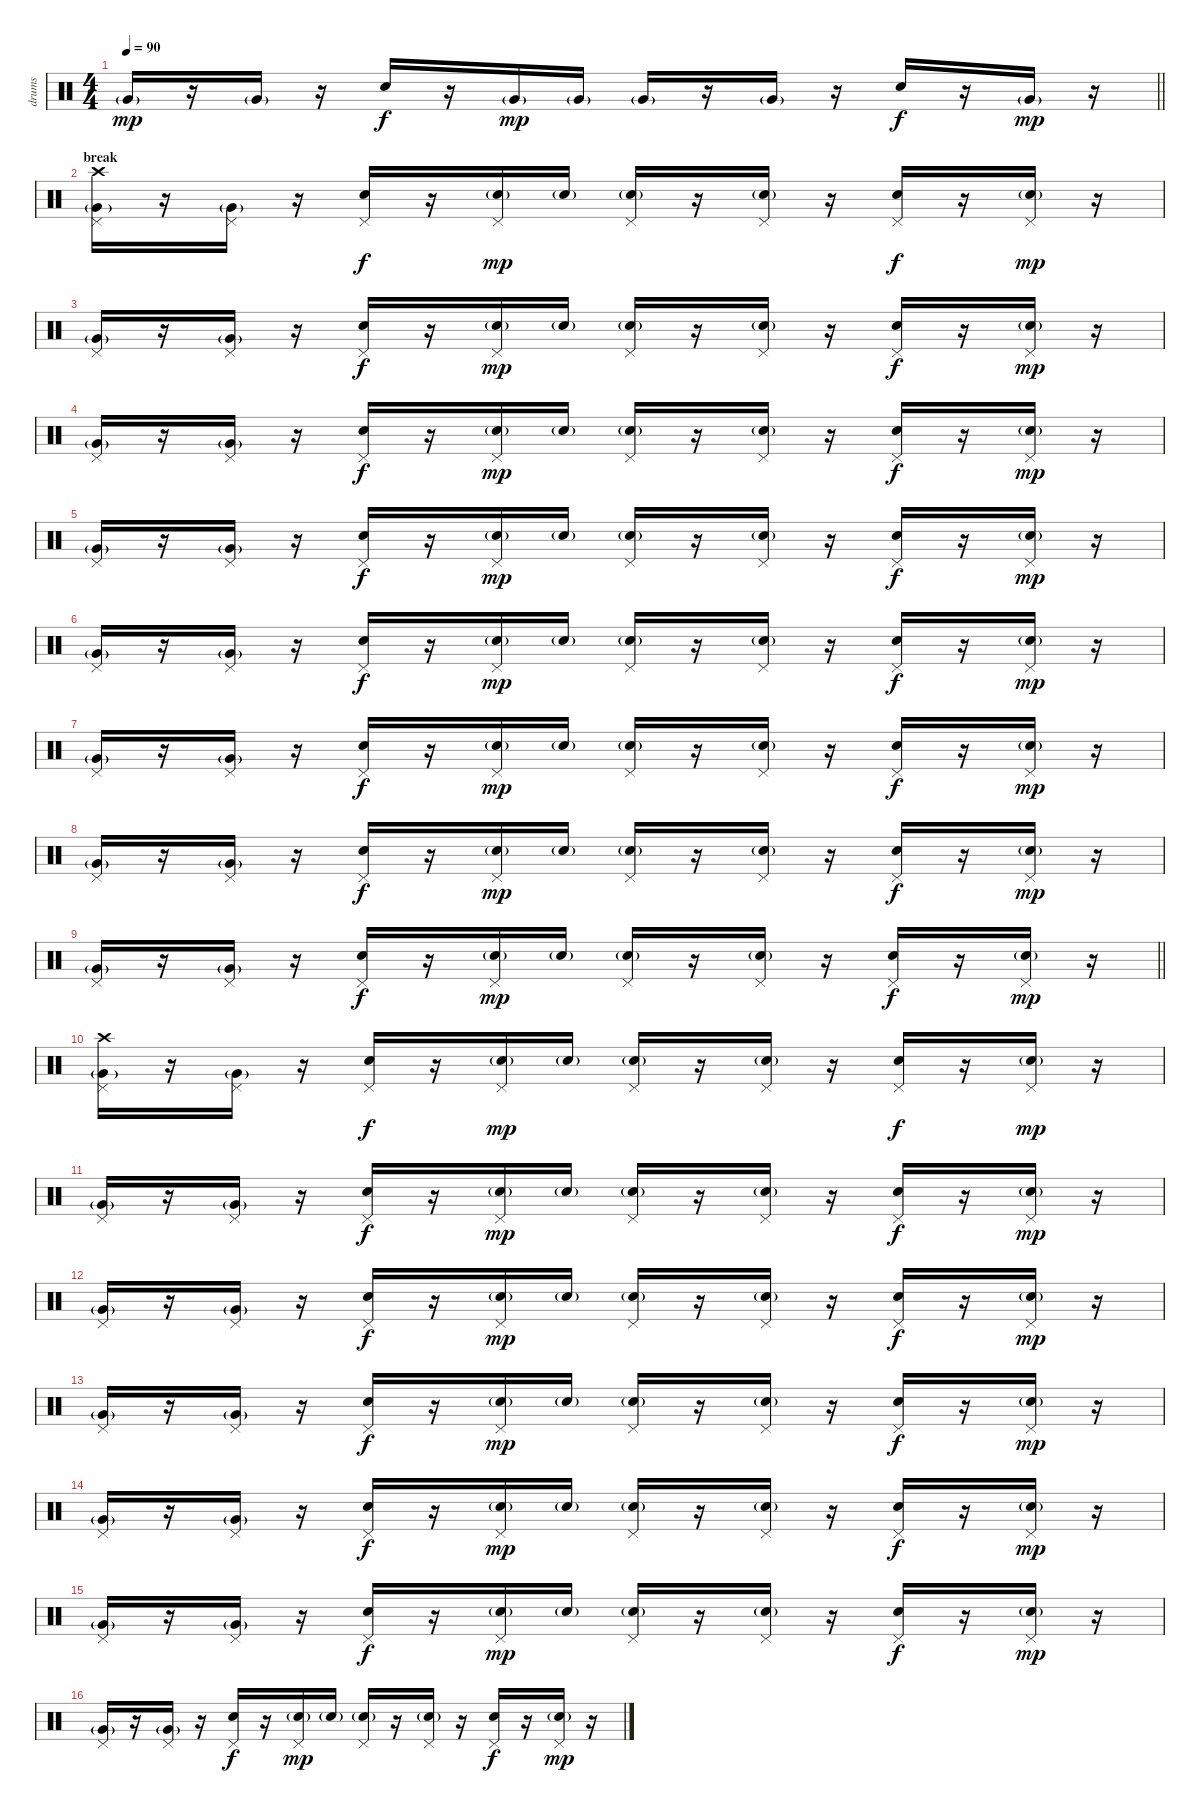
\track ("drums" "drums") {instrument percussion}
\staff {score}
\articulation defaults
\ts (4 4)
\tempo 90
\clef neutral
\barLineRight lightlight
\ks c "Very Low Tom (hit)"{g}.16{dy mp}
r.16 "Very Low Tom (hit)"{g}.16 r.16 "Electric Snare (hit)".16{dy f} r.16 "Very Low Tom (hit)"{g}.16{dy mp} "Very Low Tom (hit)"{g}.16 "Very Low Tom (hit)"{g}.16 r.16 "Very Low Tom (hit)"{g}.16 r.16 "Electric Snare (hit)".16{dy f} r.16 "Very Low Tom (hit)"{g}.16{dy mp} r.16 |
\section ("" "break")
("Very Low Tom (hit)"{g} "Pedal Hi-Hat (hit)" "Crash high (hit)").16 r.16 ("Very Low Tom (hit)"{g} "Pedal Hi-Hat (hit)").16 r.16 ("Electric Snare (hit)" "Pedal Hi-Hat (hit)").16{dy f} r.16 ("Electric Snare (hit)"{g} "Pedal Hi-Hat (hit)").16{dy mp} "Electric Snare (hit)"{g}.16 ("Electric Snare (hit)"{g} "Pedal Hi-Hat (hit)").16 r.16 ("Electric Snare (hit)"{g} "Pedal Hi-Hat (hit)").16 r.16 ("Electric Snare (hit)" "Pedal Hi-Hat (hit)").16{dy f} r.16 ("Electric Snare (hit)"{g} "Pedal Hi-Hat (hit)").16{dy mp} r.16 |
("Very Low Tom (hit)"{g} "Pedal Hi-Hat (hit)").16 r.16 ("Very Low Tom (hit)"{g} "Pedal Hi-Hat (hit)").16 r.16 ("Electric Snare (hit)" "Pedal Hi-Hat (hit)").16{dy f} r.16 ("Electric Snare (hit)"{g} "Pedal Hi-Hat (hit)").16{dy mp} "Electric Snare (hit)"{g}.16 ("Electric Snare (hit)"{g} "Pedal Hi-Hat (hit)").16 r.16 ("Electric Snare (hit)"{g} "Pedal Hi-Hat (hit)").16 r.16 ("Electric Snare (hit)" "Pedal Hi-Hat (hit)").16{dy f} r.16 ("Electric Snare (hit)"{g} "Pedal Hi-Hat (hit)").16{dy mp} r.16 |
("Very Low Tom (hit)"{g} "Pedal Hi-Hat (hit)").16 r.16 ("Very Low Tom (hit)"{g} "Pedal Hi-Hat (hit)").16 r.16 ("Electric Snare (hit)" "Pedal Hi-Hat (hit)").16{dy f} r.16 ("Electric Snare (hit)"{g} "Pedal Hi-Hat (hit)").16{dy mp} "Electric Snare (hit)"{g}.16 ("Electric Snare (hit)"{g} "Pedal Hi-Hat (hit)").16 r.16 ("Electric Snare (hit)"{g} "Pedal Hi-Hat (hit)").16 r.16 ("Electric Snare (hit)" "Pedal Hi-Hat (hit)").16{dy f} r.16 ("Electric Snare (hit)"{g} "Pedal Hi-Hat (hit)").16{dy mp} r.16 |
("Very Low Tom (hit)"{g} "Pedal Hi-Hat (hit)").16 r.16 ("Very Low Tom (hit)"{g} "Pedal Hi-Hat (hit)").16 r.16 ("Electric Snare (hit)" "Pedal Hi-Hat (hit)").16{dy f} r.16 ("Electric Snare (hit)"{g} "Pedal Hi-Hat (hit)").16{dy mp} "Electric Snare (hit)"{g}.16 ("Electric Snare (hit)"{g} "Pedal Hi-Hat (hit)").16 r.16 ("Electric Snare (hit)"{g} "Pedal Hi-Hat (hit)").16 r.16 ("Electric Snare (hit)" "Pedal Hi-Hat (hit)").16{dy f} r.16 ("Electric Snare (hit)"{g} "Pedal Hi-Hat (hit)").16{dy mp} r.16 |
("Very Low Tom (hit)"{g} "Pedal Hi-Hat (hit)").16 r.16 ("Very Low Tom (hit)"{g} "Pedal Hi-Hat (hit)").16 r.16 ("Electric Snare (hit)" "Pedal Hi-Hat (hit)").16{dy f} r.16 ("Electric Snare (hit)"{g} "Pedal Hi-Hat (hit)").16{dy mp} "Electric Snare (hit)"{g}.16 ("Electric Snare (hit)"{g} "Pedal Hi-Hat (hit)").16 r.16 ("Electric Snare (hit)"{g} "Pedal Hi-Hat (hit)").16 r.16 ("Electric Snare (hit)" "Pedal Hi-Hat (hit)").16{dy f} r.16 ("Electric Snare (hit)"{g} "Pedal Hi-Hat (hit)").16{dy mp} r.16 |
("Very Low Tom (hit)"{g} "Pedal Hi-Hat (hit)").16 r.16 ("Very Low Tom (hit)"{g} "Pedal Hi-Hat (hit)").16 r.16 ("Electric Snare (hit)" "Pedal Hi-Hat (hit)").16{dy f} r.16 ("Electric Snare (hit)"{g} "Pedal Hi-Hat (hit)").16{dy mp} "Electric Snare (hit)"{g}.16 ("Electric Snare (hit)"{g} "Pedal Hi-Hat (hit)").16 r.16 ("Electric Snare (hit)"{g} "Pedal Hi-Hat (hit)").16 r.16 ("Electric Snare (hit)" "Pedal Hi-Hat (hit)").16{dy f} r.16 ("Electric Snare (hit)"{g} "Pedal Hi-Hat (hit)").16{dy mp} r.16 |
("Very Low Tom (hit)"{g} "Pedal Hi-Hat (hit)").16 r.16 ("Very Low Tom (hit)"{g} "Pedal Hi-Hat (hit)").16 r.16 ("Electric Snare (hit)" "Pedal Hi-Hat (hit)").16{dy f} r.16 ("Electric Snare (hit)"{g} "Pedal Hi-Hat (hit)").16{dy mp} "Electric Snare (hit)"{g}.16 ("Electric Snare (hit)"{g} "Pedal Hi-Hat (hit)").16 r.16 ("Electric Snare (hit)"{g} "Pedal Hi-Hat (hit)").16 r.16 ("Electric Snare (hit)" "Pedal Hi-Hat (hit)").16{dy f} r.16 ("Electric Snare (hit)"{g} "Pedal Hi-Hat (hit)").16{dy mp} r.16 |
\barLineRight lightlight
("Very Low Tom (hit)"{g} "Pedal Hi-Hat (hit)").16 r.16 ("Very Low Tom (hit)"{g} "Pedal Hi-Hat (hit)").16 r.16 ("Electric Snare (hit)" "Pedal Hi-Hat (hit)").16{dy f} r.16 ("Electric Snare (hit)"{g} "Pedal Hi-Hat (hit)").16{dy mp} "Electric Snare (hit)"{g}.16 ("Electric Snare (hit)"{g} "Pedal Hi-Hat (hit)").16 r.16 ("Electric Snare (hit)"{g} "Pedal Hi-Hat (hit)").16 r.16 ("Electric Snare (hit)" "Pedal Hi-Hat (hit)").16{dy f} r.16 ("Electric Snare (hit)"{g} "Pedal Hi-Hat (hit)").16{dy mp} r.16 |
("Very Low Tom (hit)"{g} "Pedal Hi-Hat (hit)" "Crash high (hit)").16 r.16 ("Very Low Tom (hit)"{g} "Pedal Hi-Hat (hit)").16 r.16 ("Electric Snare (hit)" "Pedal Hi-Hat (hit)").16{dy f} r.16 ("Electric Snare (hit)"{g} "Pedal Hi-Hat (hit)").16{dy mp} "Electric Snare (hit)"{g}.16 ("Electric Snare (hit)"{g} "Pedal Hi-Hat (hit)").16 r.16 ("Electric Snare (hit)"{g} "Pedal Hi-Hat (hit)").16 r.16 ("Electric Snare (hit)" "Pedal Hi-Hat (hit)").16{dy f} r.16 ("Electric Snare (hit)"{g} "Pedal Hi-Hat (hit)").16{dy mp} r.16 |
("Very Low Tom (hit)"{g} "Pedal Hi-Hat (hit)").16 r.16 ("Very Low Tom (hit)"{g} "Pedal Hi-Hat (hit)").16 r.16 ("Electric Snare (hit)" "Pedal Hi-Hat (hit)").16{dy f} r.16 ("Electric Snare (hit)"{g} "Pedal Hi-Hat (hit)").16{dy mp} "Electric Snare (hit)"{g}.16 ("Electric Snare (hit)"{g} "Pedal Hi-Hat (hit)").16 r.16 ("Electric Snare (hit)"{g} "Pedal Hi-Hat (hit)").16 r.16 ("Electric Snare (hit)" "Pedal Hi-Hat (hit)").16{dy f} r.16 ("Electric Snare (hit)"{g} "Pedal Hi-Hat (hit)").16{dy mp} r.16 |
("Very Low Tom (hit)"{g} "Pedal Hi-Hat (hit)").16 r.16 ("Very Low Tom (hit)"{g} "Pedal Hi-Hat (hit)").16 r.16 ("Electric Snare (hit)" "Pedal Hi-Hat (hit)").16{dy f} r.16 ("Electric Snare (hit)"{g} "Pedal Hi-Hat (hit)").16{dy mp} "Electric Snare (hit)"{g}.16 ("Electric Snare (hit)"{g} "Pedal Hi-Hat (hit)").16 r.16 ("Electric Snare (hit)"{g} "Pedal Hi-Hat (hit)").16 r.16 ("Electric Snare (hit)" "Pedal Hi-Hat (hit)").16{dy f} r.16 ("Electric Snare (hit)"{g} "Pedal Hi-Hat (hit)").16{dy mp} r.16 |
("Very Low Tom (hit)"{g} "Pedal Hi-Hat (hit)").16 r.16 ("Very Low Tom (hit)"{g} "Pedal Hi-Hat (hit)").16 r.16 ("Electric Snare (hit)" "Pedal Hi-Hat (hit)").16{dy f} r.16 ("Electric Snare (hit)"{g} "Pedal Hi-Hat (hit)").16{dy mp} "Electric Snare (hit)"{g}.16 ("Electric Snare (hit)"{g} "Pedal Hi-Hat (hit)").16 r.16 ("Electric Snare (hit)"{g} "Pedal Hi-Hat (hit)").16 r.16 ("Electric Snare (hit)" "Pedal Hi-Hat (hit)").16{dy f} r.16 ("Electric Snare (hit)"{g} "Pedal Hi-Hat (hit)").16{dy mp} r.16 |
("Very Low Tom (hit)"{g} "Pedal Hi-Hat (hit)").16 r.16 ("Very Low Tom (hit)"{g} "Pedal Hi-Hat (hit)").16 r.16 ("Electric Snare (hit)" "Pedal Hi-Hat (hit)").16{dy f} r.16 ("Electric Snare (hit)"{g} "Pedal Hi-Hat (hit)").16{dy mp} "Electric Snare (hit)"{g}.16 ("Electric Snare (hit)"{g} "Pedal Hi-Hat (hit)").16 r.16 ("Electric Snare (hit)"{g} "Pedal Hi-Hat (hit)").16 r.16 ("Electric Snare (hit)" "Pedal Hi-Hat (hit)").16{dy f} r.16 ("Electric Snare (hit)"{g} "Pedal Hi-Hat (hit)").16{dy mp} r.16 |
("Very Low Tom (hit)"{g} "Pedal Hi-Hat (hit)").16 r.16 ("Very Low Tom (hit)"{g} "Pedal Hi-Hat (hit)").16 r.16 ("Electric Snare (hit)" "Pedal Hi-Hat (hit)").16{dy f} r.16 ("Electric Snare (hit)"{g} "Pedal Hi-Hat (hit)").16{dy mp} "Electric Snare (hit)"{g}.16 ("Electric Snare (hit)"{g} "Pedal Hi-Hat (hit)").16 r.16 ("Electric Snare (hit)"{g} "Pedal Hi-Hat (hit)").16 r.16 ("Electric Snare (hit)" "Pedal Hi-Hat (hit)").16{dy f} r.16 ("Electric Snare (hit)"{g} "Pedal Hi-Hat (hit)").16{dy mp} r.16 |
("Very Low Tom (hit)"{g} "Pedal Hi-Hat (hit)").16 r.16 ("Very Low Tom (hit)"{g} "Pedal Hi-Hat (hit)").16 r.16 ("Electric Snare (hit)" "Pedal Hi-Hat (hit)").16{dy f} r.16 ("Electric Snare (hit)"{g} "Pedal Hi-Hat (hit)").16{dy mp} "Electric Snare (hit)"{g}.16 ("Electric Snare (hit)"{g} "Pedal Hi-Hat (hit)").16 r.16 ("Electric Snare (hit)"{g} "Pedal Hi-Hat (hit)").16 r.16 ("Electric Snare (hit)" "Pedal Hi-Hat (hit)").16{dy f} r.16 ("Electric Snare (hit)"{g} "Pedal Hi-Hat (hit)").16{dy mp} r.16
